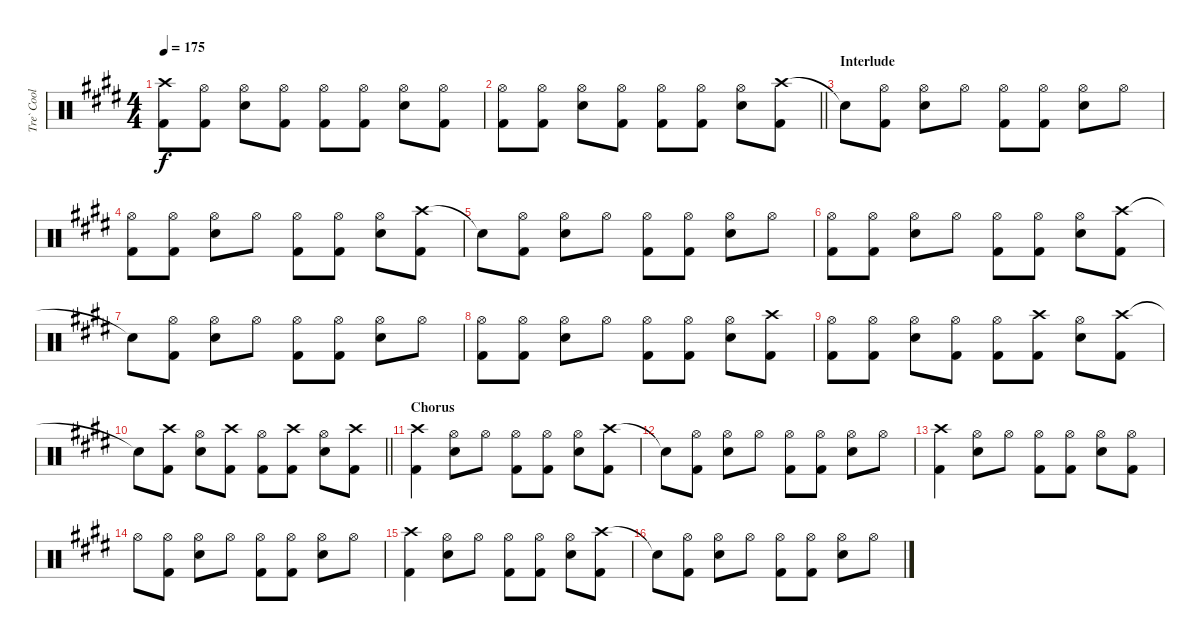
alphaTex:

\track ("Tre` Cool" "Tre` Cool") {instrument percussion}
\staff {score}
\articulation defaults
\ts (4 4)
\tempo 175
\clef neutral
\ks e
("Crash high (hit)" "Kick (hit) 2").8{dy f} ("Hi-Hat (open)" "Kick (hit) 2").8 ("Hi-Hat (open)" "Snare (hit) 2").8 ("Hi-Hat (open)" "Kick (hit) 2").8 ("Hi-Hat (open)" "Kick (hit) 2").8 ("Hi-Hat (open)" "Kick (hit) 2").8 ("Hi-Hat (open)" "Snare (hit) 2").8 ("Hi-Hat (open)" "Kick (hit) 2").8 |
\barLineRight lightlight
("Hi-Hat (open)" "Kick (hit) 2").8 ("Hi-Hat (open)" "Kick (hit) 2").8 ("Hi-Hat (open)" "Snare (hit) 2").8 ("Hi-Hat (open)" "Kick (hit) 2").8 ("Hi-Hat (open)" "Kick (hit) 2").8 ("Hi-Hat (open)" "Kick (hit) 2").8 ("Hi-Hat (open)" "Snare (hit) 2").8 ("Crash high (hit)" "Kick (hit) 2").8 |
\section ("" "Interlude")
"Snare (hit)"{t}.8 ("Hi-Hat (open)" "Kick (hit) 2").8 ("Hi-Hat (open)" "Snare (hit) 2").8 "Hi-Hat (open)".8 ("Hi-Hat (open)" "Kick (hit) 2").8 ("Hi-Hat (open)" "Kick (hit) 2").8 ("Hi-Hat (open)" "Snare (hit) 2").8 "Hi-Hat (open)".8 |
("Hi-Hat (open)" "Kick (hit) 2").8 ("Hi-Hat (open)" "Kick (hit) 2").8 ("Hi-Hat (open)" "Snare (hit) 2").8 "Hi-Hat (open)".8 ("Hi-Hat (open)" "Kick (hit) 2").8 ("Hi-Hat (open)" "Kick (hit) 2").8 ("Hi-Hat (open)" "Snare (hit) 2").8 ("Crash high (hit)" "Kick (hit) 2").8 |
"Snare (hit)"{t}.8 ("Hi-Hat (open)" "Kick (hit) 2").8 ("Hi-Hat (open)" "Snare (hit) 2").8 "Hi-Hat (open)".8 ("Hi-Hat (open)" "Kick (hit) 2").8 ("Hi-Hat (open)" "Kick (hit) 2").8 ("Hi-Hat (open)" "Snare (hit) 2").8 "Hi-Hat (open)".8 |
("Hi-Hat (open)" "Kick (hit) 2").8 ("Hi-Hat (open)" "Kick (hit) 2").8 ("Hi-Hat (open)" "Snare (hit) 2").8 "Hi-Hat (open)".8 ("Hi-Hat (open)" "Kick (hit) 2").8 ("Hi-Hat (open)" "Kick (hit) 2").8 ("Hi-Hat (open)" "Snare (hit) 2").8 ("Crash high (hit)" "Kick (hit) 2").8 |
"Snare (hit)"{t}.8 ("Hi-Hat (open)" "Kick (hit) 2").8 ("Hi-Hat (open)" "Snare (hit) 2").8 "Hi-Hat (open)".8 ("Hi-Hat (open)" "Kick (hit) 2").8 ("Hi-Hat (open)" "Kick (hit) 2").8 ("Hi-Hat (open)" "Snare (hit) 2").8 "Hi-Hat (open)".8 |
("Hi-Hat (open)" "Kick (hit) 2").8 ("Hi-Hat (open)" "Kick (hit) 2").8 ("Hi-Hat (open)" "Snare (hit) 2").8 "Hi-Hat (open)".8 ("Hi-Hat (open)" "Kick (hit) 2").8 ("Hi-Hat (open)" "Kick (hit) 2").8 ("Hi-Hat (open)" "Snare (hit) 2").8 ("Crash high (hit)" "Kick (hit) 2").8 |
("Hi-Hat (open)" "Kick (hit) 2").8 ("Hi-Hat (open)" "Kick (hit) 2").8 ("Hi-Hat (open)" "Snare (hit) 2").8 ("Hi-Hat (open)" "Kick (hit) 2").8 ("Hi-Hat (open)" "Kick (hit) 2").8 ("Crash high (hit)" "Kick (hit) 2").8 ("Hi-Hat (open)" "Snare (hit) 2").8 ("Crash high (hit)" "Kick (hit) 2").8 |
\barLineRight lightlight "Snare (hit)"{t}.8
("Crash high (hit)" "Kick (hit) 2").8 ("Hi-Hat (open)" "Snare (hit) 2").8 ("Crash high (hit)" "Kick (hit) 2").8 ("Hi-Hat (open)" "Kick (hit) 2").8 ("Crash high (hit)" "Kick (hit) 2").8 ("Hi-Hat (open)" "Snare (hit) 2").8 ("Crash high (hit)" "Kick (hit) 2").8 |
\section ("" "Chorus")
("Crash high (hit)" "Kick (hit) 2").4 ("Hi-Hat (open)" "Snare (hit) 2").8 "Hi-Hat (open)".8 ("Hi-Hat (open)" "Kick (hit) 2").8 ("Hi-Hat (open)" "Kick (hit) 2").8 ("Hi-Hat (open)" "Snare (hit) 2").8 ("Crash high (hit)" "Kick (hit) 2").8 |
"Snare (hit)"{t}.8 ("Hi-Hat (open)" "Kick (hit) 2").8 ("Hi-Hat (open)" "Snare (hit) 2").8 "Hi-Hat (open)".8 ("Hi-Hat (open)" "Kick (hit) 2").8 ("Hi-Hat (open)" "Kick (hit) 2").8 ("Hi-Hat (open)" "Snare (hit) 2").8 "Hi-Hat (open)".8 |
("Crash high (hit)" "Kick (hit) 2").4 ("Hi-Hat (open)" "Snare (hit) 2").8 "Hi-Hat (open)".8 ("Hi-Hat (open)" "Kick (hit) 2").8 ("Hi-Hat (open)" "Kick (hit) 2").8 ("Hi-Hat (open)" "Snare (hit) 2").8 ("Hi-Hat (open)" "Kick (hit) 2").8 |
"Hi-Hat (open)".8 ("Hi-Hat (open)" "Kick (hit) 2").8 ("Hi-Hat (open)" "Snare (hit) 2").8 "Hi-Hat (open)".8 ("Hi-Hat (open)" "Kick (hit) 2").8 ("Hi-Hat (open)" "Kick (hit) 2").8 ("Hi-Hat (open)" "Snare (hit) 2").8 "Hi-Hat (open)".8 |
("Crash high (hit)" "Kick (hit) 2").4 ("Hi-Hat (open)" "Snare (hit) 2").8 "Hi-Hat (open)".8 ("Hi-Hat (open)" "Kick (hit) 2").8 ("Hi-Hat (open)" "Kick (hit) 2").8 ("Hi-Hat (open)" "Snare (hit) 2").8 ("Crash high (hit)" "Kick (hit) 2").8 |
"Snare (hit)"{t}.8 ("Hi-Hat (open)" "Kick (hit) 2").8 ("Hi-Hat (open)" "Snare (hit) 2").8 "Hi-Hat (open)".8 ("Hi-Hat (open)" "Kick (hit) 2").8 ("Hi-Hat (open)" "Kick (hit) 2").8 ("Hi-Hat (open)" "Snare (hit) 2").8 "Hi-Hat (open)".8
